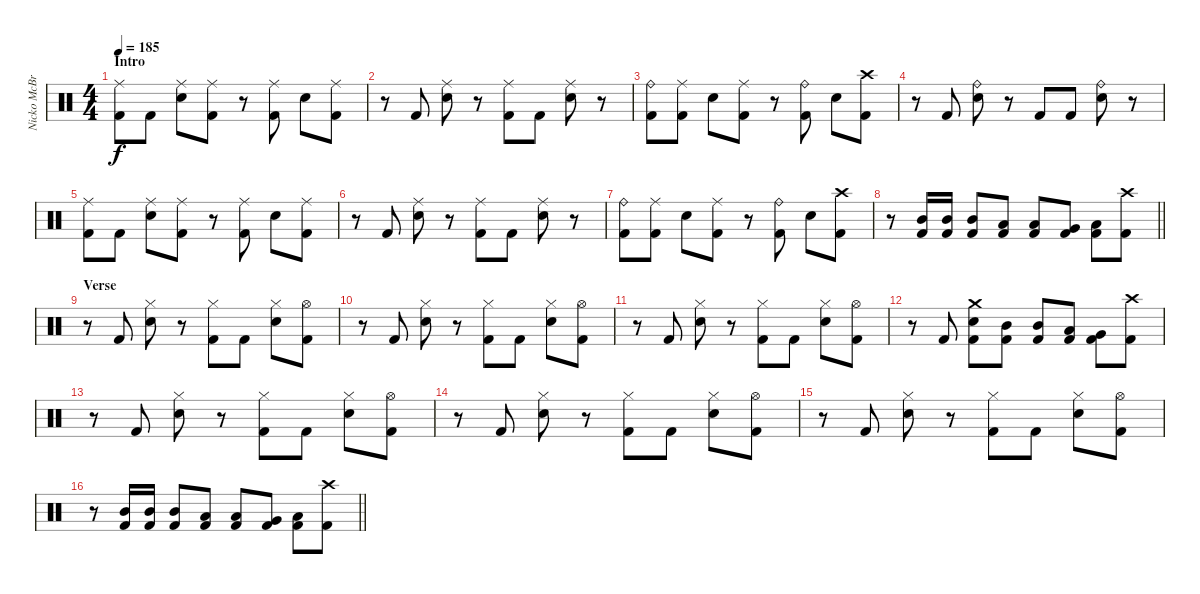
\track ("Nicko McBrain" "Nicko McBr") {instrument percussion}
\staff {score}
\articulation defaults
\ts (4 4)
\section ("" "Intro")
\tempo 185
\clef neutral
\ks c
("Ride (middle)" "Kick (hit) 2").8{dy f} "Kick (hit) 2".8 ("Ride (middle)" "Snare (hit) 2").8 ("Ride (middle)" "Kick (hit) 2").8 r.8 ("Ride (middle)" "Kick (hit) 2").8 "Snare (hit) 2".8 ("Ride (middle)" "Kick (hit) 2").8 |
r.8 "Kick (hit) 2".8 ("Ride (middle)" "Snare (hit) 2").8 r.8 ("Ride (middle)" "Kick (hit) 2").8 "Kick (hit) 2".8 ("Ride (middle)" "Snare (hit) 2").8 r.8 |
("Ride (bell)" "Kick (hit) 2").8 ("Ride (middle)" "Kick (hit) 2").8 "Snare (hit) 2".8 ("Ride (middle)" "Kick (hit) 2").8 r.8 ("Ride (bell)" "Kick (hit) 2").8 "Snare (hit) 2".8 ("Crash high (hit)" "Kick (hit) 2").8 |
r.8 "Kick (hit) 2".8 ("Ride (bell)" "Snare (hit) 2").8 r.8 "Kick (hit) 2".8 "Kick (hit) 2".8 ("Ride (bell)" "Snare (hit) 2").8 r.8 |
("Ride (middle)" "Kick (hit) 2").8 "Kick (hit) 2".8 ("Ride (middle)" "Snare (hit) 2").8 ("Ride (middle)" "Kick (hit) 2").8 r.8 ("Ride (middle)" "Kick (hit) 2").8 "Snare (hit) 2".8 ("Ride (middle)" "Kick (hit) 2").8 |
r.8 "Kick (hit) 2".8 ("Ride (middle)" "Snare (hit) 2").8 r.8 ("Ride (middle)" "Kick (hit) 2").8 "Kick (hit) 2".8 ("Ride (middle)" "Snare (hit) 2").8 r.8 |
("Ride (bell)" "Kick (hit) 2").8 ("Ride (middle)" "Kick (hit) 2").8 "Snare (hit) 2".8 ("Ride (middle)" "Kick (hit) 2").8 r.8 ("Ride (bell)" "Kick (hit) 2").8 "Snare (hit) 2".8 ("Crash high (hit)" "Kick (hit) 2").8 |
\barLineRight lightlight
r.8 ("Mid Tom (hit)" "Kick (hit) 2").16 ("Mid Tom (hit)" "Kick (hit) 2").16 ("Mid Tom (hit)" "Kick (hit) 2").8 ("Low Tom (hit)" "Kick (hit) 2").8 ("Low Tom (hit)" "Kick (hit) 2").8 ("Very Low Tom (hit)" "Kick (hit) 2").8 ("Low Floor Tom (hit)" "Kick (hit) 2").8 ("Crash high (hit)" "Kick (hit) 2").8 |
\section ("" "Verse")
r.8 "Kick (hit) 2".8 ("Hi-Hat (closed)" "Snare (hit) 2").8 r.8 ("Hi-Hat (closed)" "Kick (hit) 2").8 "Kick (hit) 2".8 ("Hi-Hat (closed)" "Snare (hit) 2").8 ("Hi-Hat (open)" "Kick (hit) 2").8 |
r.8 "Kick (hit) 2".8 ("Hi-Hat (closed)" "Snare (hit) 2").8 r.8 ("Hi-Hat (closed)" "Kick (hit) 2").8 "Kick (hit) 2".8 ("Hi-Hat (closed)" "Snare (hit) 2").8 ("Hi-Hat (open)" "Kick (hit) 2").8 |
r.8 "Kick (hit) 2".8 ("Hi-Hat (closed)" "Snare (hit) 2").8 r.8 ("Hi-Hat (closed)" "Kick (hit) 2").8 "Kick (hit) 2".8 ("Hi-Hat (closed)" "Snare (hit) 2").8 ("Hi-Hat (open)" "Kick (hit) 2").8 |
r.8 "Kick (hit) 2".8 ("Crash medium (hit)" "Snare (hit) 2" "Kick (hit) 2").8 ("Mid Tom (hit)" "Kick (hit) 2").8 ("Mid Tom (hit)" "Kick (hit) 2").8 ("Low Tom (hit)" "Kick (hit) 2").8 ("Very Low Tom (hit)" "Kick (hit) 2").8 ("Crash high (hit)" "Kick (hit) 2").8 |
r.8 "Kick (hit) 2".8 ("Hi-Hat (closed)" "Snare (hit) 2").8 r.8 ("Hi-Hat (closed)" "Kick (hit) 2").8 "Kick (hit) 2".8 ("Hi-Hat (closed)" "Snare (hit) 2").8 ("Hi-Hat (open)" "Kick (hit) 2").8 |
r.8 "Kick (hit) 2".8 ("Hi-Hat (closed)" "Snare (hit) 2").8 r.8 ("Hi-Hat (closed)" "Kick (hit) 2").8 "Kick (hit) 2".8 ("Hi-Hat (closed)" "Snare (hit) 2").8 ("Hi-Hat (open)" "Kick (hit) 2").8 |
r.8 "Kick (hit) 2".8 ("Hi-Hat (closed)" "Snare (hit) 2").8 r.8 ("Hi-Hat (closed)" "Kick (hit) 2").8 "Kick (hit) 2".8 ("Hi-Hat (closed)" "Snare (hit) 2").8 ("Hi-Hat (open)" "Kick (hit) 2").8 |
\barLineRight lightlight
r.8 ("Mid Tom (hit)" "Kick (hit) 2").16 ("Mid Tom (hit)" "Kick (hit) 2").16 ("Mid Tom (hit)" "Kick (hit) 2").8 ("Low Tom (hit)" "Kick (hit) 2").8 ("Low Tom (hit)" "Kick (hit) 2").8 ("Very Low Tom (hit)" "Kick (hit) 2").8 ("Low Floor Tom (hit)" "Kick (hit) 2").8 ("Crash high (hit)" "Kick (hit) 2").8
